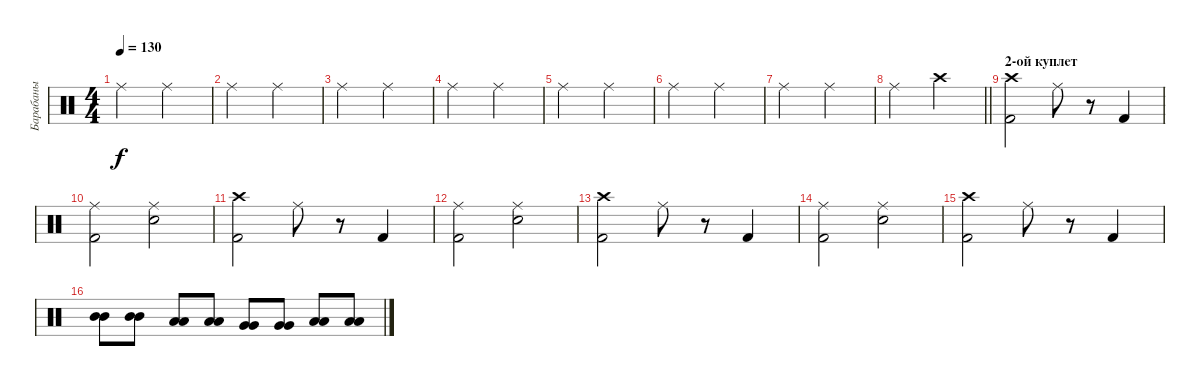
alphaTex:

\track ("Барабаны" "Барабаны") {instrument percussion}
\staff {score}
\articulation defaults
\ts (4 4)
\tempo 130
\clef neutral
\ks c "Ride (middle)".2{dy f} "Ride (middle)".2
|
"Ride (middle)".2 "Ride (middle)".2 |
"Ride (middle)".2 "Ride (middle)".2 |
"Ride (middle)".2 "Ride (middle)".2 |
"Ride (middle)".2 "Ride (middle)".2 |
"Ride (middle)".2 "Ride (middle)".2 |
"Ride (middle)".2 "Ride (middle)".2 |
\barLineRight lightlight "Ride (middle)".2 "Crash high (hit)".2
|
\section ("" "2-ой куплет")
("Kick (hit) 2" "Crash high (hit)").2 "Ride (middle)".8 r.8 "Kick (hit) 2".4 |
("Kick (hit) 2" "Ride (middle)").2 ("Electric Snare (hit)" "Ride (middle)").2 |
("Kick (hit) 2" "Crash high (hit)").2 "Ride (middle)".8 r.8 "Kick (hit) 2".4 |
("Kick (hit) 2" "Ride (middle)").2 ("Electric Snare (hit)" "Ride (middle)").2 |
("Kick (hit) 2" "Crash high (hit)").2 "Ride (middle)".8 r.8 "Kick (hit) 2".4 |
("Kick (hit) 2" "Ride (middle)").2 ("Electric Snare (hit)" "Ride (middle)").2 |
("Kick (hit) 2" "Crash high (hit)").2 "Ride (middle)".8 r.8 "Kick (hit) 2".4 |
("Mid Tom (hit)" "Mid Tom (hit)").8 ("Mid Tom (hit)" "Mid Tom (hit)").8 ("Low Tom (hit)" "Low Tom (hit)").8 ("Low Tom (hit)" "Low Tom (hit)").8 ("Very Low Tom (hit)" "Very Low Tom (hit)").8 ("Very Low Tom (hit)" "Very Low Tom (hit)").8 ("Low Floor Tom (hit)" "Low Floor Tom (hit)").8 ("Low Floor Tom (hit)" "Low Floor Tom (hit)").8
